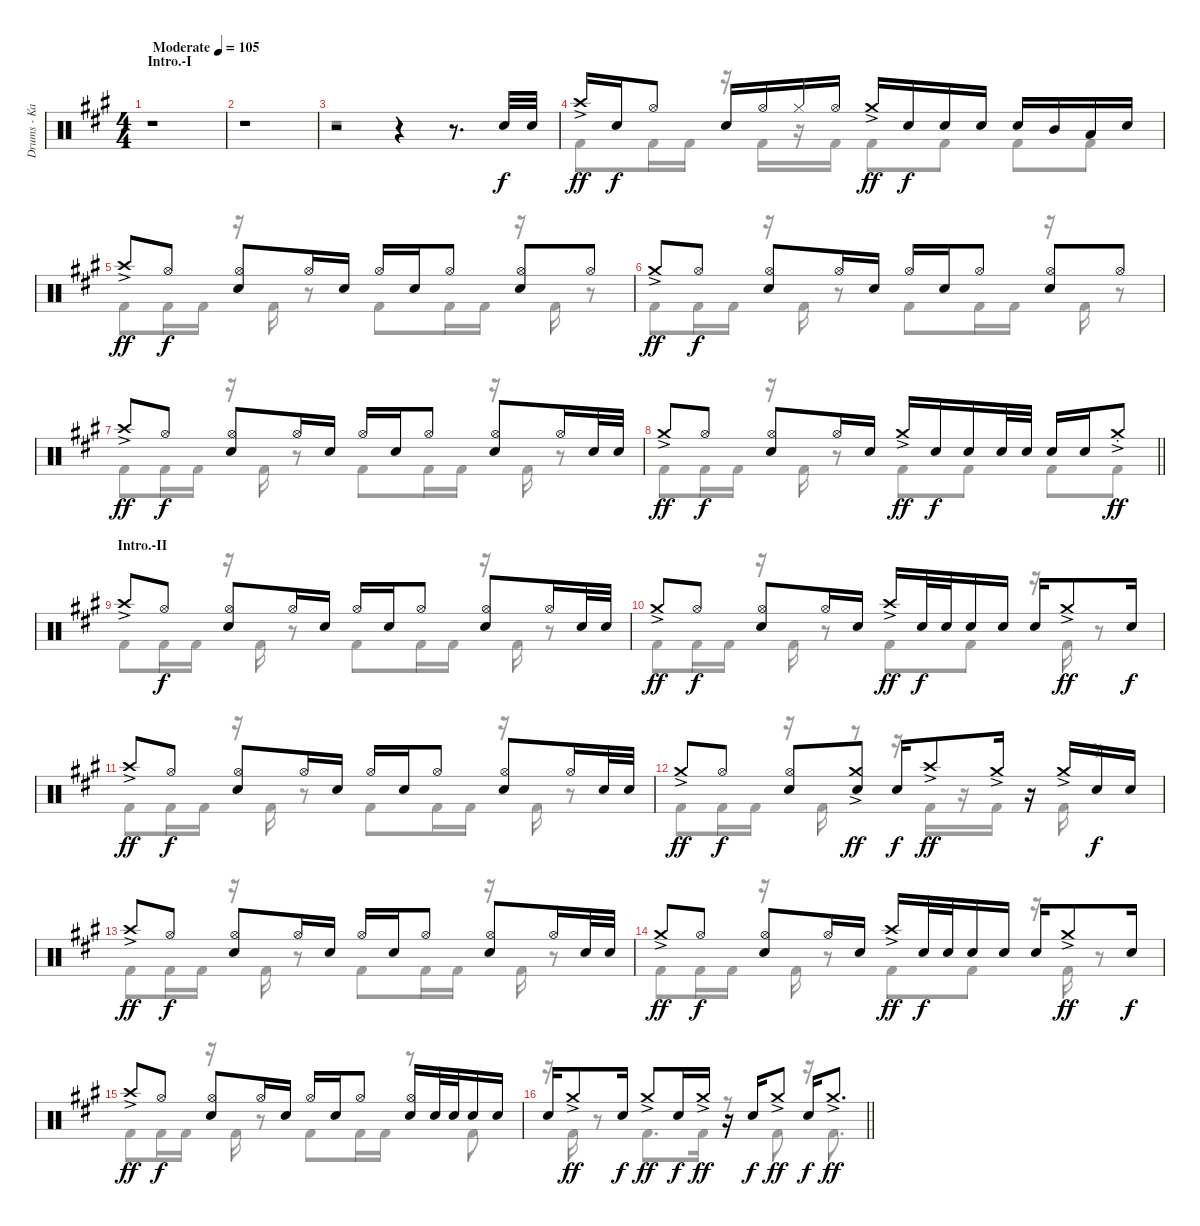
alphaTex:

\track ("Drums - Kai" "Drums - Ka") {instrument percussion}
\staff {score}
\articulation defaults
\voice
\ts (4 4)
\section ("" "Intro.-I")
\tempo (105 "Moderate")
\clef neutral
\ks a
r.1{dy f} |
r.1 |
r.2 r.4 r.8{d} "Electric Snare (hit)".32 "Electric Snare (hit)".32 |
"Crash high (hit)"{ac}.16{dy ff} "Electric Snare (hit)".16{dy f} "Hi-Hat (open)".8 "Electric Snare (hit)".16 "Hi-Hat (open)".16 "Hi-Hat (closed)".16 "Hi-Hat (open)".16 "Crash medium (hit)"{ac}.16{dy ff} "Electric Snare (hit)".16{dy f} "Electric Snare (hit)".16 "Electric Snare (hit)".16 "Electric Snare (hit)".16 "Mid Tom (hit)".16 "Low Tom (hit)".16 "Electric Snare (hit)".16 |
"Crash high (hit)"{ac}.8{dy ff} "Hi-Hat (open)".8{dy f} ("Hi-Hat (open)" "Electric Snare (hit)").8 "Hi-Hat (open)".16 "Electric Snare (hit)".16 "Hi-Hat (open)".16 "Electric Snare (hit)".16 "Hi-Hat (open)".8 ("Hi-Hat (open)" "Electric Snare (hit)").8 "Hi-Hat (open)".8 |
"Crash medium (hit)"{ac}.8{dy ff} "Hi-Hat (open)".8{dy f} ("Hi-Hat (open)" "Electric Snare (hit)").8 "Hi-Hat (open)".16 "Electric Snare (hit)".16 "Hi-Hat (open)".16 "Electric Snare (hit)".16 "Hi-Hat (open)".8 ("Hi-Hat (open)" "Electric Snare (hit)").8 "Hi-Hat (open)".8 |
"Crash high (hit)"{ac}.8{dy ff} "Hi-Hat (open)".8{dy f} ("Hi-Hat (open)" "Electric Snare (hit)").8 "Hi-Hat (open)".16 "Electric Snare (hit)".16 "Hi-Hat (open)".16 "Electric Snare (hit)".16 "Hi-Hat (open)".8 ("Hi-Hat (open)" "Electric Snare (hit)").8 "Hi-Hat (open)".16 "Electric Snare (hit)".32 "Electric Snare (hit)".32 |
\barLineRight lightlight "Crash medium (hit)"{ac}.8{dy ff} "Hi-Hat (open)".8{dy f}
("Hi-Hat (open)" "Electric Snare (hit)").8 "Hi-Hat (open)".16 "Electric Snare (hit)".16 "Crash medium (hit)"{ac}.16{dy ff} "Electric Snare (hit)".16{dy f} "Electric Snare (hit)".16 "Electric Snare (hit)".32 "Electric Snare (hit)".32 "Electric Snare (hit)".16 "Electric Snare (hit)".16 "Crash medium (hit)"{ac st}.8{dy ff} |
\section ("" "Intro.-II")
"Crash high (hit)"{ac}.8 "Hi-Hat (open)".8{dy f} ("Hi-Hat (open)" "Electric Snare (hit)").8 "Hi-Hat (open)".16 "Electric Snare (hit)".16 "Hi-Hat (open)".16 "Electric Snare (hit)".16 "Hi-Hat (open)".8 ("Hi-Hat (open)" "Electric Snare (hit)").8 "Hi-Hat (open)".16 "Electric Snare (hit)".32 "Electric Snare (hit)".32 |
"Crash medium (hit)"{ac}.8{dy ff} "Hi-Hat (open)".8{dy f} ("Hi-Hat (open)" "Electric Snare (hit)").8 "Hi-Hat (open)".16 "Electric Snare (hit)".16 "Crash high (hit)"{ac}.16{dy ff} "Electric Snare (hit)".32{dy f} "Electric Snare (hit)".32 "Electric Snare (hit)".16 "Electric Snare (hit)".16 "Electric Snare (hit)".16 "Crash medium (hit)"{ac}.8{dy ff} "Electric Snare (hit)".16{dy f} |
"Crash high (hit)"{ac}.8{dy ff} "Hi-Hat (open)".8{dy f} ("Hi-Hat (open)" "Electric Snare (hit)").8 "Hi-Hat (open)".16 "Electric Snare (hit)".16 "Hi-Hat (open)".16 "Electric Snare (hit)".16 "Hi-Hat (open)".8 ("Hi-Hat (open)" "Electric Snare (hit)").8 "Hi-Hat (open)".16 "Electric Snare (hit)".32 "Electric Snare (hit)".32 |
"Crash medium (hit)"{ac}.8{dy ff} "Hi-Hat (open)".8{dy f} ("Hi-Hat (open)" "Electric Snare (hit)").8 ("Crash medium (hit)"{ac} "Electric Snare (hit)").8{dy ff} "Electric Snare (hit)".16{dy f} "Crash high (hit)"{ac}.8{dy ff} "Crash medium (hit)"{ac}.16 r.16 "Crash medium (hit)"{ac}.16 "Electric Snare (hit)".16{dy f} "Electric Snare (hit)".16 |
"Crash high (hit)"{ac}.8{dy ff} "Hi-Hat (open)".8{dy f} ("Hi-Hat (open)" "Electric Snare (hit)").8 "Hi-Hat (open)".16 "Electric Snare (hit)".16 "Hi-Hat (open)".16 "Electric Snare (hit)".16 "Hi-Hat (open)".8 ("Hi-Hat (open)" "Electric Snare (hit)").8 "Hi-Hat (open)".16 "Electric Snare (hit)".32 "Electric Snare (hit)".32 |
"Crash medium (hit)"{ac}.8{dy ff} "Hi-Hat (open)".8{dy f} ("Hi-Hat (open)" "Electric Snare (hit)").8 "Hi-Hat (open)".16 "Electric Snare (hit)".16 "Crash high (hit)"{ac}.16{dy ff} "Electric Snare (hit)".32{dy f} "Electric Snare (hit)".32 "Electric Snare (hit)".16 "Electric Snare (hit)".16 "Electric Snare (hit)".16 "Crash medium (hit)"{ac}.8{dy ff} "Electric Snare (hit)".16{dy f} |
"Crash high (hit)"{ac}.8{dy ff} "Hi-Hat (open)".8{dy f} ("Hi-Hat (open)" "Electric Snare (hit)").8 "Hi-Hat (open)".16 "Electric Snare (hit)".16 "Hi-Hat (open)".16 "Electric Snare (hit)".16 "Hi-Hat (open)".8 ("Hi-Hat (open)" "Electric Snare (hit)").16 "Electric Snare (hit)".32 "Electric Snare (hit)".32 "Electric Snare (hit)".16 "Electric Snare (hit)".16 |
\barLineRight lightlight "Electric Snare (hit)".16 "Crash medium (hit)"{ac}.8{dy ff} "Electric Snare (hit)".16{dy f} "Crash medium (hit)"{ac}.8{dy ff} "Electric Snare (hit)".16{dy f} "Crash medium (hit)"{ac}.16{dy ff}
r.16 "Electric Snare (hit)".16{dy f} "Crash medium (hit)"{ac}.8{dy ff} "Electric Snare (hit)".16{dy f} "Crash medium (hit)"{ac}.8{d dy ff}
\voice
\clef neutral
\ottava regular
\simile none
\ks a
|
|
r.1 |
"Kick (hit) 2".8 "Kick (hit) 2".16 "Kick (hit) 2".16 r.16 "Kick (hit) 2".16 r.16 "Kick (hit) 2".16 "Kick (hit) 2".8 "Kick (hit) 2".8 "Kick (hit) 2".8 "Kick (hit) 2".8 |
"Kick (hit) 2".8 "Kick (hit) 2".16 "Kick (hit) 2".16 r.16 "Kick (hit) 2".16 r.8 "Kick (hit) 2".8 "Kick (hit) 2".16 "Kick (hit) 2".16 r.16 "Kick (hit) 2".16 r.8 |
"Kick (hit) 2".8 "Kick (hit) 2".16 "Kick (hit) 2".16 r.16 "Kick (hit) 2".16 r.8 "Kick (hit) 2".8 "Kick (hit) 2".16 "Kick (hit) 2".16 r.16 "Kick (hit) 2".16 r.8 |
"Kick (hit) 2".8 "Kick (hit) 2".16 "Kick (hit) 2".16 r.16 "Kick (hit) 2".16 r.8 "Kick (hit) 2".8 "Kick (hit) 2".16 "Kick (hit) 2".16 r.16 "Kick (hit) 2".16 r.8 |
\barLineRight lightlight "Kick (hit) 2".8 "Kick (hit) 2".16 "Kick (hit) 2".16
r.16 "Kick (hit) 2".16 r.8 "Kick (hit) 2".8 "Kick (hit) 2".8 "Kick (hit) 2".8 "Kick (hit) 2".8 |
"Kick (hit) 2".8 "Kick (hit) 2".16 "Kick (hit) 2".16 r.16 "Kick (hit) 2".16 r.8 "Kick (hit) 2".8 "Kick (hit) 2".16 "Kick (hit) 2".16 r.16 "Kick (hit) 2".16 r.8 |
"Kick (hit) 2".8 "Kick (hit) 2".16 "Kick (hit) 2".16 r.16 "Kick (hit) 2".16 r.8 "Kick (hit) 2".8 "Kick (hit) 2".8 r.16 "Kick (hit) 2".16 r.8 |
"Kick (hit) 2".8 "Kick (hit) 2".16 "Kick (hit) 2".16 r.16 "Kick (hit) 2".16 r.8 "Kick (hit) 2".8 "Kick (hit) 2".16 "Kick (hit) 2".16 r.16 "Kick (hit) 2".16 r.8 |
"Kick (hit) 2".8 "Kick (hit) 2".16 "Kick (hit) 2".16 r.16 "Kick (hit) 2".16 r.8 r.16 "Kick (hit) 2".16 r.16 "Kick (hit) 2".16 r.16 "Kick (hit) 2".16 r.8 |
"Kick (hit) 2".8 "Kick (hit) 2".16 "Kick (hit) 2".16 r.16 "Kick (hit) 2".16 r.8 "Kick (hit) 2".8 "Kick (hit) 2".16 "Kick (hit) 2".16 r.16 "Kick (hit) 2".16 r.8 |
"Kick (hit) 2".8 "Kick (hit) 2".16 "Kick (hit) 2".16 r.16 "Kick (hit) 2".16 r.8 "Kick (hit) 2".8 "Kick (hit) 2".8 r.16 "Kick (hit) 2".16 r.8 |
"Kick (hit) 2".8 "Kick (hit) 2".16 "Kick (hit) 2".16 r.16 "Kick (hit) 2".16 r.8 "Kick (hit) 2".8 "Kick (hit) 2".16 "Kick (hit) 2".16 r.8 "Kick (hit) 2".8 |
\barLineRight lightlight
r.16 "Kick (hit) 2".16 r.8 "Kick (hit) 2".8{d} "Kick (hit) 2".16 r.8 "Kick (hit) 2".8 r.16 "Kick (hit) 2".8{d}
